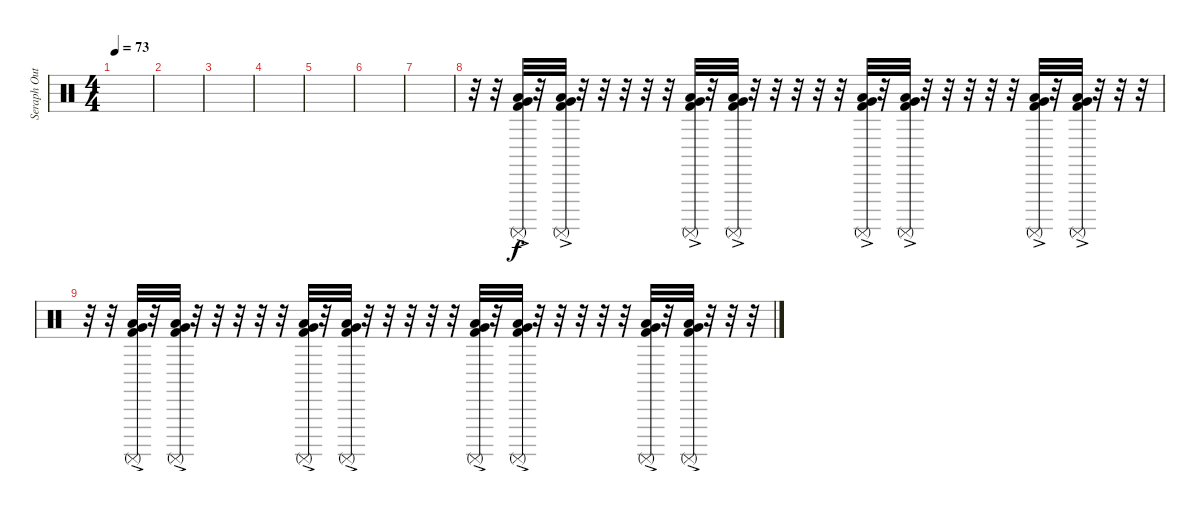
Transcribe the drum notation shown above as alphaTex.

\track ("Seraph Outro" "Seraph Out") {instrument percussion}
\staff {score}
\articulation defaults
\ts (4 4)
\tempo 73
\clef neutral
\ks c
|
|
|
|
|
|
|
r.32 r.32 ("Kick (hit) 2"{ac} "Surdo (mute)" "Low Tom (hit)"{ac} "Very Low Tom (hit)"{ac}).32 r.32 ("Kick (hit) 2"{ac} "Surdo (mute)" "Low Tom (hit)"{ac} "Very Low Tom (hit)"{ac}).32 r.32 r.32 r.32 r.32 r.32 ("Kick (hit) 2"{ac} "Surdo (mute)" "Low Tom (hit)"{ac} "Very Low Tom (hit)"{ac}).32 r.32 ("Kick (hit) 2"{ac} "Surdo (mute)" "Low Tom (hit)"{ac} "Very Low Tom (hit)"{ac}).32 r.32 r.32 r.32 r.32 r.32 ("Kick (hit) 2"{ac} "Surdo (mute)" "Low Tom (hit)"{ac} "Very Low Tom (hit)"{ac}).32 r.32 ("Kick (hit) 2"{ac} "Surdo (mute)" "Low Tom (hit)"{ac} "Very Low Tom (hit)"{ac}).32 r.32 r.32 r.32 r.32 r.32 ("Kick (hit) 2"{ac} "Surdo (mute)" "Low Tom (hit)"{ac} "Very Low Tom (hit)"{ac}).32 r.32 ("Kick (hit) 2"{ac} "Surdo (mute)" "Low Tom (hit)"{ac} "Very Low Tom (hit)"{ac}).32 r.32 r.32 r.32 |
r.32 r.32 ("Kick (hit) 2"{ac} "Surdo (mute)" "Low Tom (hit)"{ac} "Very Low Tom (hit)"{ac}).32 r.32 ("Kick (hit) 2"{ac} "Surdo (mute)" "Low Tom (hit)"{ac} "Very Low Tom (hit)"{ac}).32 r.32 r.32 r.32 r.32 r.32 ("Kick (hit) 2"{ac} "Surdo (mute)" "Low Tom (hit)"{ac} "Very Low Tom (hit)"{ac}).32 r.32 ("Kick (hit) 2"{ac} "Surdo (mute)" "Low Tom (hit)"{ac} "Very Low Tom (hit)"{ac}).32 r.32 r.32 r.32 r.32 r.32 ("Kick (hit) 2"{ac} "Surdo (mute)" "Low Tom (hit)"{ac} "Very Low Tom (hit)"{ac}).32 r.32 ("Kick (hit) 2"{ac} "Surdo (mute)" "Low Tom (hit)"{ac} "Very Low Tom (hit)"{ac}).32 r.32 r.32 r.32 r.32 r.32 ("Kick (hit) 2"{ac} "Surdo (mute)" "Low Tom (hit)"{ac} "Very Low Tom (hit)"{ac}).32 r.32 ("Kick (hit) 2"{ac} "Surdo (mute)" "Low Tom (hit)"{ac} "Very Low Tom (hit)"{ac}).32 r.32 r.32 r.32
